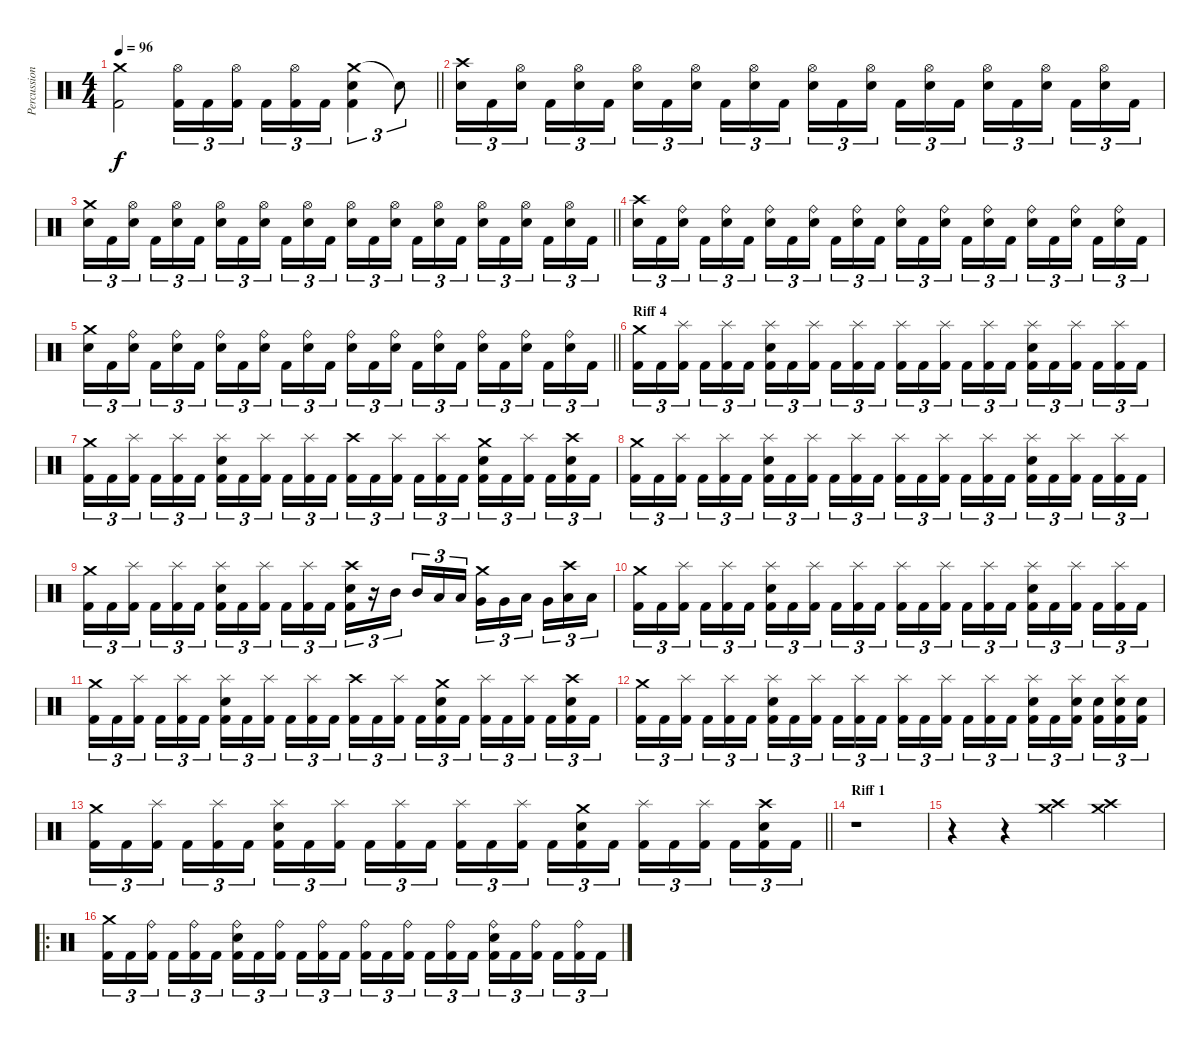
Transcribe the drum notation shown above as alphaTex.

\track ("Percussions" "Percussion") {instrument percussion}
\staff {score}
\articulation defaults
\ts (4 4)
\tempo 96
\clef neutral
\barLineRight lightlight
\ks c
("Crash medium (hit)" "Kick (hit) 2").2{dy f} ("Hi-Hat (open)" "Kick (hit) 2").16{tu (3 2)} "Kick (hit) 2".16{tu (3 2)} ("Hi-Hat (open)" "Kick (hit) 2").16{tu (3 2) beam splitsecondary} "Kick (hit) 2".16{tu (3 2)} ("Hi-Hat (open)" "Kick (hit) 2").16{tu (3 2)} "Kick (hit) 2".16{tu (3 2)} ("Crash medium (hit)" "Snare (hit) 2" "Kick (hit) 2").4{tu (3 2)} "Snare (hit)"{t}.8{tu (3 2)} |
("Crash high (hit)" "Snare (hit) 2").16{tu (3 2)} "Kick (hit) 2".16{tu (3 2)} ("Hi-Hat (open)" "Snare (hit) 2").16{tu (3 2) beam splitsecondary} "Kick (hit) 2".16{tu (3 2)} ("Hi-Hat (open)" "Snare (hit) 2").16{tu (3 2)} "Kick (hit) 2".16{tu (3 2)} ("Hi-Hat (open)" "Snare (hit) 2").16{tu (3 2)} "Kick (hit) 2".16{tu (3 2)} ("Hi-Hat (open)" "Snare (hit) 2").16{tu (3 2) beam splitsecondary} "Kick (hit) 2".16{tu (3 2)} ("Hi-Hat (open)" "Snare (hit) 2").16{tu (3 2)} "Kick (hit) 2".16{tu (3 2)} ("Hi-Hat (open)" "Snare (hit) 2").16{tu (3 2)} "Kick (hit) 2".16{tu (3 2)} ("Hi-Hat (open)" "Snare (hit) 2").16{tu (3 2) beam splitsecondary} "Kick (hit) 2".16{tu (3 2)} ("Hi-Hat (open)" "Snare (hit) 2").16{tu (3 2)} "Kick (hit) 2".16{tu (3 2)} ("Hi-Hat (open)" "Snare (hit) 2").16{tu (3 2)} "Kick (hit) 2".16{tu (3 2)} ("Hi-Hat (open)" "Snare (hit) 2").16{tu (3 2) beam splitsecondary} "Kick (hit) 2".16{tu (3 2)} ("Hi-Hat (open)" "Snare (hit) 2").16{tu (3 2)} "Kick (hit) 2".16{tu (3 2)} |
\barLineRight lightlight
("Crash medium (hit)" "Snare (hit) 2").16{tu (3 2)} "Kick (hit) 2".16{tu (3 2)} ("Hi-Hat (open)" "Snare (hit) 2").16{tu (3 2) beam splitsecondary} "Kick (hit) 2".16{tu (3 2)} ("Hi-Hat (open)" "Snare (hit) 2").16{tu (3 2)} "Kick (hit) 2".16{tu (3 2)} ("Hi-Hat (open)" "Snare (hit) 2").16{tu (3 2)} "Kick (hit) 2".16{tu (3 2)} ("Hi-Hat (open)" "Snare (hit) 2").16{tu (3 2) beam splitsecondary} "Kick (hit) 2".16{tu (3 2)} ("Hi-Hat (open)" "Snare (hit) 2").16{tu (3 2)} "Kick (hit) 2".16{tu (3 2)} ("Hi-Hat (open)" "Snare (hit) 2").16{tu (3 2)} "Kick (hit) 2".16{tu (3 2)} ("Hi-Hat (open)" "Snare (hit) 2").16{tu (3 2) beam splitsecondary} "Kick (hit) 2".16{tu (3 2)} ("Hi-Hat (open)" "Snare (hit) 2").16{tu (3 2)} "Kick (hit) 2".16{tu (3 2)} ("Hi-Hat (open)" "Snare (hit) 2").16{tu (3 2)} "Kick (hit) 2".16{tu (3 2)} ("Hi-Hat (open)" "Snare (hit) 2").16{tu (3 2) beam splitsecondary} "Kick (hit) 2".16{tu (3 2)} ("Hi-Hat (open)" "Snare (hit) 2").16{tu (3 2)} "Kick (hit) 2".16{tu (3 2)} |
("Crash high (hit)" "Snare (hit) 2").16{tu (3 2)} "Kick (hit) 2".16{tu (3 2)} ("Ride (bell)" "Snare (hit) 2").16{tu (3 2) beam splitsecondary} "Kick (hit) 2".16{tu (3 2)} ("Ride (bell)" "Snare (hit) 2").16{tu (3 2)} "Kick (hit) 2".16{tu (3 2)} ("Ride (bell)" "Snare (hit) 2").16{tu (3 2)} "Kick (hit) 2".16{tu (3 2)} ("Ride (bell)" "Snare (hit) 2").16{tu (3 2) beam splitsecondary} "Kick (hit) 2".16{tu (3 2)} ("Ride (bell)" "Snare (hit) 2").16{tu (3 2)} "Kick (hit) 2".16{tu (3 2)} ("Ride (bell)" "Snare (hit) 2").16{tu (3 2)} "Kick (hit) 2".16{tu (3 2)} ("Ride (bell)" "Snare (hit) 2").16{tu (3 2) beam splitsecondary} "Kick (hit) 2".16{tu (3 2)} ("Ride (bell)" "Snare (hit) 2").16{tu (3 2)} "Kick (hit) 2".16{tu (3 2)} ("Ride (bell)" "Snare (hit) 2").16{tu (3 2)} "Kick (hit) 2".16{tu (3 2)} ("Ride (bell)" "Snare (hit) 2").16{tu (3 2) beam splitsecondary} "Kick (hit) 2".16{tu (3 2)} ("Ride (bell)" "Snare (hit) 2").16{tu (3 2)} "Kick (hit) 2".16{tu (3 2)} |
\barLineRight lightlight
("Crash medium (hit)" "Snare (hit) 2").16{tu (3 2)} "Kick (hit) 2".16{tu (3 2)} ("Ride (bell)" "Snare (hit) 2").16{tu (3 2) beam splitsecondary} "Kick (hit) 2".16{tu (3 2)} ("Ride (bell)" "Snare (hit) 2").16{tu (3 2)} "Kick (hit) 2".16{tu (3 2)} ("Ride (bell)" "Snare (hit) 2").16{tu (3 2)} "Kick (hit) 2".16{tu (3 2)} ("Ride (bell)" "Snare (hit) 2").16{tu (3 2) beam splitsecondary} "Kick (hit) 2".16{tu (3 2)} ("Ride (bell)" "Snare (hit) 2").16{tu (3 2)} "Kick (hit) 2".16{tu (3 2)} ("Ride (bell)" "Snare (hit) 2").16{tu (3 2)} "Kick (hit) 2".16{tu (3 2)} ("Ride (bell)" "Snare (hit) 2").16{tu (3 2) beam splitsecondary} "Kick (hit) 2".16{tu (3 2)} ("Ride (bell)" "Snare (hit) 2").16{tu (3 2)} "Kick (hit) 2".16{tu (3 2)} ("Ride (bell)" "Snare (hit) 2").16{tu (3 2)} "Kick (hit) 2".16{tu (3 2)} ("Ride (bell)" "Snare (hit) 2").16{tu (3 2) beam splitsecondary} "Kick (hit) 2".16{tu (3 2)} ("Ride (bell)" "Snare (hit) 2").16{tu (3 2)} "Kick (hit) 2".16{tu (3 2)} |
\section ("" "Riff 4")
("Crash medium (hit)" "Kick (hit) 2").16{tu (3 2)} "Kick (hit) 2".16{tu (3 2)} ("Splash (hit)" "Kick (hit) 2").16{tu (3 2) beam splitsecondary} "Kick (hit) 2".16{tu (3 2)} ("Splash (hit)" "Kick (hit) 2").16{tu (3 2)} "Kick (hit) 2".16{tu (3 2)} ("Splash (hit)" "Snare (hit) 2" "Kick (hit) 2").16{tu (3 2)} "Kick (hit) 2".16{tu (3 2)} ("Splash (hit)" "Kick (hit) 2").16{tu (3 2) beam splitsecondary} "Kick (hit) 2".16{tu (3 2)} ("Splash (hit)" "Kick (hit) 2").16{tu (3 2)} "Kick (hit) 2".16{tu (3 2)} ("Splash (hit)" "Kick (hit) 2").16{tu (3 2)} "Kick (hit) 2".16{tu (3 2)} ("Splash (hit)" "Kick (hit) 2").16{tu (3 2) beam splitsecondary} "Kick (hit) 2".16{tu (3 2)} ("Splash (hit)" "Kick (hit) 2").16{tu (3 2)} "Kick (hit) 2".16{tu (3 2)} ("Splash (hit)" "Snare (hit) 2" "Kick (hit) 2").16{tu (3 2)} "Kick (hit) 2".16{tu (3 2)} ("Splash (hit)" "Kick (hit) 2").16{tu (3 2) beam splitsecondary} "Kick (hit) 2".16{tu (3 2)} ("Splash (hit)" "Kick (hit) 2").16{tu (3 2)} "Kick (hit) 2".16{tu (3 2)} |
("Crash medium (hit)" "Kick (hit) 2").16{tu (3 2)} "Kick (hit) 2".16{tu (3 2)} ("Splash (hit)" "Kick (hit) 2").16{tu (3 2) beam splitsecondary} "Kick (hit) 2".16{tu (3 2)} ("Splash (hit)" "Kick (hit) 2").16{tu (3 2)} "Kick (hit) 2".16{tu (3 2)} ("Splash (hit)" "Snare (hit) 2" "Kick (hit) 2").16{tu (3 2)} "Kick (hit) 2".16{tu (3 2)} ("Splash (hit)" "Kick (hit) 2").16{tu (3 2) beam splitsecondary} "Kick (hit) 2".16{tu (3 2)} ("Splash (hit)" "Kick (hit) 2").16{tu (3 2)} "Kick (hit) 2".16{tu (3 2)} ("Crash high (hit)" "Kick (hit) 2").16{tu (3 2)} "Kick (hit) 2".16{tu (3 2)} ("Splash (hit)" "Kick (hit) 2").16{tu (3 2) beam splitsecondary} "Kick (hit) 2".16{tu (3 2)} ("Splash (hit)" "Kick (hit) 2").16{tu (3 2)} "Kick (hit) 2".16{tu (3 2)} ("Crash medium (hit)" "Snare (hit) 2" "Kick (hit) 2").16{tu (3 2)} "Kick (hit) 2".16{tu (3 2)} ("Splash (hit)" "Kick (hit) 2").16{tu (3 2) beam splitsecondary} "Kick (hit) 2".16{tu (3 2)} ("Crash high (hit)" "Snare (hit) 2" "Kick (hit) 2").16{tu (3 2)} "Kick (hit) 2".16{tu (3 2)} |
("Crash medium (hit)" "Kick (hit) 2").16{tu (3 2)} "Kick (hit) 2".16{tu (3 2)} ("Splash (hit)" "Kick (hit) 2").16{tu (3 2) beam splitsecondary} "Kick (hit) 2".16{tu (3 2)} ("Splash (hit)" "Kick (hit) 2").16{tu (3 2)} "Kick (hit) 2".16{tu (3 2)} ("Splash (hit)" "Snare (hit) 2" "Kick (hit) 2").16{tu (3 2)} "Kick (hit) 2".16{tu (3 2)} ("Splash (hit)" "Kick (hit) 2").16{tu (3 2) beam splitsecondary} "Kick (hit) 2".16{tu (3 2)} ("Splash (hit)" "Kick (hit) 2").16{tu (3 2)} "Kick (hit) 2".16{tu (3 2)} ("Splash (hit)" "Kick (hit) 2").16{tu (3 2)} "Kick (hit) 2".16{tu (3 2)} ("Splash (hit)" "Kick (hit) 2").16{tu (3 2) beam splitsecondary} "Kick (hit) 2".16{tu (3 2)} ("Splash (hit)" "Kick (hit) 2").16{tu (3 2)} "Kick (hit) 2".16{tu (3 2)} ("Splash (hit)" "Snare (hit) 2" "Kick (hit) 2").16{tu (3 2)} "Kick (hit) 2".16{tu (3 2)} ("Splash (hit)" "Kick (hit) 2").16{tu (3 2) beam splitsecondary} "Kick (hit) 2".16{tu (3 2)} ("Splash (hit)" "Kick (hit) 2").16{tu (3 2)} "Kick (hit) 2".16{tu (3 2)} |
("Crash medium (hit)" "Kick (hit) 2").16{tu (3 2)} "Kick (hit) 2".16{tu (3 2)} ("Splash (hit)" "Kick (hit) 2").16{tu (3 2) beam splitsecondary} "Kick (hit) 2".16{tu (3 2)} ("Splash (hit)" "Kick (hit) 2").16{tu (3 2)} "Kick (hit) 2".16{tu (3 2)} ("Splash (hit)" "Snare (hit) 2" "Kick (hit) 2").16{tu (3 2)} "Kick (hit) 2".16{tu (3 2)} ("Splash (hit)" "Kick (hit) 2").16{tu (3 2) beam splitsecondary} "Kick (hit) 2".16{tu (3 2)} ("Splash (hit)" "Kick (hit) 2").16{tu (3 2)} "Kick (hit) 2".16{tu (3 2)} ("Crash high (hit)" "Snare (hit) 2" "Kick (hit) 2").16{tu (3 2)} r.16{tu (3 2)} "Mid Tom (hit)".16{tu (3 2) beam splitsecondary} "Mid Tom (hit)".16{tu (3 2)} "Low Tom (hit)".16{tu (3 2)} "Low Tom (hit)".16{tu (3 2)} ("Crash medium (hit)" "Very Low Tom (hit)").16{tu (3 2)} "Very Low Tom (hit)".16{tu (3 2)} "Low Tom (hit)".16{tu (3 2) beam splitsecondary} "Very Low Tom (hit)".16{tu (3 2)} ("Crash high (hit)" "Low Floor Tom (hit)").16{tu (3 2)} "Low Floor Tom (hit)".16{tu (3 2)} |
("Crash medium (hit)" "Kick (hit) 2").16{tu (3 2)} "Kick (hit) 2".16{tu (3 2)} ("Splash (hit)" "Kick (hit) 2").16{tu (3 2) beam splitsecondary} "Kick (hit) 2".16{tu (3 2)} ("Splash (hit)" "Kick (hit) 2").16{tu (3 2)} "Kick (hit) 2".16{tu (3 2)} ("Splash (hit)" "Snare (hit) 2" "Kick (hit) 2").16{tu (3 2)} "Kick (hit) 2".16{tu (3 2)} ("Splash (hit)" "Kick (hit) 2").16{tu (3 2) beam splitsecondary} "Kick (hit) 2".16{tu (3 2)} ("Splash (hit)" "Kick (hit) 2").16{tu (3 2)} "Kick (hit) 2".16{tu (3 2)} ("Splash (hit)" "Kick (hit) 2").16{tu (3 2)} "Kick (hit) 2".16{tu (3 2)} ("Splash (hit)" "Kick (hit) 2").16{tu (3 2) beam splitsecondary} "Kick (hit) 2".16{tu (3 2)} ("Splash (hit)" "Kick (hit) 2").16{tu (3 2)} "Kick (hit) 2".16{tu (3 2)} ("Splash (hit)" "Snare (hit) 2" "Kick (hit) 2").16{tu (3 2)} "Kick (hit) 2".16{tu (3 2)} ("Splash (hit)" "Kick (hit) 2").16{tu (3 2) beam splitsecondary} "Kick (hit) 2".16{tu (3 2)} ("Splash (hit)" "Kick (hit) 2").16{tu (3 2)} "Kick (hit) 2".16{tu (3 2)} |
("Crash medium (hit)" "Kick (hit) 2").16{tu (3 2)} "Kick (hit) 2".16{tu (3 2)} ("Splash (hit)" "Kick (hit) 2").16{tu (3 2) beam splitsecondary} "Kick (hit) 2".16{tu (3 2)} ("Splash (hit)" "Kick (hit) 2").16{tu (3 2)} "Kick (hit) 2".16{tu (3 2)} ("Splash (hit)" "Snare (hit) 2" "Kick (hit) 2").16{tu (3 2)} "Kick (hit) 2".16{tu (3 2)} ("Splash (hit)" "Kick (hit) 2").16{tu (3 2) beam splitsecondary} "Kick (hit) 2".16{tu (3 2)} ("Splash (hit)" "Kick (hit) 2").16{tu (3 2)} "Kick (hit) 2".16{tu (3 2)} ("Crash high (hit)" "Kick (hit) 2").16{tu (3 2)} "Kick (hit) 2".16{tu (3 2)} ("Splash (hit)" "Kick (hit) 2").16{tu (3 2) beam splitsecondary} "Kick (hit) 2".16{tu (3 2)} ("Crash medium (hit)" "Snare (hit) 2" "Kick (hit) 2").16{tu (3 2)} "Kick (hit) 2".16{tu (3 2)} ("Splash (hit)" "Kick (hit) 2").16{tu (3 2)} "Kick (hit) 2".16{tu (3 2)} ("Splash (hit)" "Kick (hit) 2").16{tu (3 2) beam splitsecondary} "Kick (hit) 2".16{tu (3 2)} ("Crash high (hit)" "Snare (hit) 2" "Kick (hit) 2").16{tu (3 2)} "Kick (hit) 2".16{tu (3 2)} |
("Crash medium (hit)" "Kick (hit) 2").16{tu (3 2)} "Kick (hit) 2".16{tu (3 2)} ("Splash (hit)" "Kick (hit) 2").16{tu (3 2) beam splitsecondary} "Kick (hit) 2".16{tu (3 2)} ("Splash (hit)" "Kick (hit) 2").16{tu (3 2)} "Kick (hit) 2".16{tu (3 2)} ("Splash (hit)" "Snare (hit) 2" "Kick (hit) 2").16{tu (3 2)} "Kick (hit) 2".16{tu (3 2)} ("Splash (hit)" "Kick (hit) 2").16{tu (3 2) beam splitsecondary} "Kick (hit) 2".16{tu (3 2)} ("Splash (hit)" "Kick (hit) 2").16{tu (3 2)} "Kick (hit) 2".16{tu (3 2)} ("Splash (hit)" "Kick (hit) 2").16{tu (3 2)} "Kick (hit) 2".16{tu (3 2)} ("Splash (hit)" "Kick (hit) 2").16{tu (3 2) beam splitsecondary} "Kick (hit) 2".16{tu (3 2)} ("Splash (hit)" "Kick (hit) 2").16{tu (3 2)} "Kick (hit) 2".16{tu (3 2)} ("Splash (hit)" "Snare (hit) 2" "Kick (hit) 2").16{tu (3 2)} "Kick (hit) 2".16{tu (3 2)} ("Splash (hit)" "Snare (hit) 2" "Kick (hit) 2").16{tu (3 2) beam splitsecondary} ("Snare (hit) 2" "Kick (hit) 2").16{tu (3 2)} ("Splash (hit)" "Snare (hit) 2" "Kick (hit) 2").16{tu (3 2)} ("Snare (hit) 2" "Kick (hit) 2").16{tu (3 2)} |
\barLineRight lightlight
("Crash medium (hit)" "Kick (hit) 2").16{tu (3 2)} "Kick (hit) 2".16{tu (3 2)} ("Splash (hit)" "Kick (hit) 2").16{tu (3 2) beam splitsecondary} "Kick (hit) 2".16{tu (3 2)} ("Splash (hit)" "Kick (hit) 2").16{tu (3 2)} "Kick (hit) 2".16{tu (3 2)} ("Splash (hit)" "Snare (hit) 2" "Kick (hit) 2").16{tu (3 2)} "Kick (hit) 2".16{tu (3 2)} ("Splash (hit)" "Kick (hit) 2").16{tu (3 2) beam splitsecondary} "Kick (hit) 2".16{tu (3 2)} ("Splash (hit)" "Kick (hit) 2").16{tu (3 2)} "Kick (hit) 2".16{tu (3 2)} ("Splash (hit)" "Kick (hit) 2").16{tu (3 2)} "Kick (hit) 2".16{tu (3 2)} ("Splash (hit)" "Kick (hit) 2").16{tu (3 2) beam splitsecondary} "Kick (hit) 2".16{tu (3 2)} ("Crash medium (hit)" "Snare (hit) 2" "Kick (hit) 2").16{tu (3 2)} "Kick (hit) 2".16{tu (3 2)} ("Splash (hit)" "Kick (hit) 2").16{tu (3 2)} "Kick (hit) 2".16{tu (3 2)} ("Splash (hit)" "Kick (hit) 2").16{tu (3 2) beam splitsecondary} "Kick (hit) 2".16{tu (3 2)} ("Crash high (hit)" "Snare (hit) 2" "Kick (hit) 2").16{tu (3 2)} "Kick (hit) 2".16{tu (3 2)} |
\section ("" "Riff 1")
r.1 |
r.4 r.4 ("Crash medium (hit)" "Crash high (hit)").4 ("Crash medium (hit)" "Crash high (hit)").4 |
\ro
("Crash medium (hit)" "Kick (hit) 2").16{tu (3 2)} "Kick (hit) 2".16{tu (3 2)} ("Ride (bell)" "Kick (hit) 2").16{tu (3 2) beam splitsecondary} "Kick (hit) 2".16{tu (3 2)} ("Ride (bell)" "Kick (hit) 2").16{tu (3 2)} "Kick (hit) 2".16{tu (3 2)} ("Ride (bell)" "Snare (hit) 2" "Kick (hit) 2").16{tu (3 2)} "Kick (hit) 2".16{tu (3 2)} ("Ride (bell)" "Kick (hit) 2").16{tu (3 2) beam splitsecondary} "Kick (hit) 2".16{tu (3 2)} ("Ride (bell)" "Kick (hit) 2").16{tu (3 2)} "Kick (hit) 2".16{tu (3 2)} ("Ride (bell)" "Kick (hit) 2").16{tu (3 2)} "Kick (hit) 2".16{tu (3 2)} ("Ride (bell)" "Kick (hit) 2").16{tu (3 2) beam splitsecondary} "Kick (hit) 2".16{tu (3 2)} ("Ride (bell)" "Kick (hit) 2").16{tu (3 2)} "Kick (hit) 2".16{tu (3 2)} ("Ride (bell)" "Snare (hit) 2" "Kick (hit) 2").16{tu (3 2)} "Kick (hit) 2".16{tu (3 2)} ("Ride (bell)" "Kick (hit) 2").16{tu (3 2) beam splitsecondary} "Kick (hit) 2".16{tu (3 2)} ("Ride (bell)" "Kick (hit) 2").16{tu (3 2)} "Kick (hit) 2".16{tu (3 2)}
